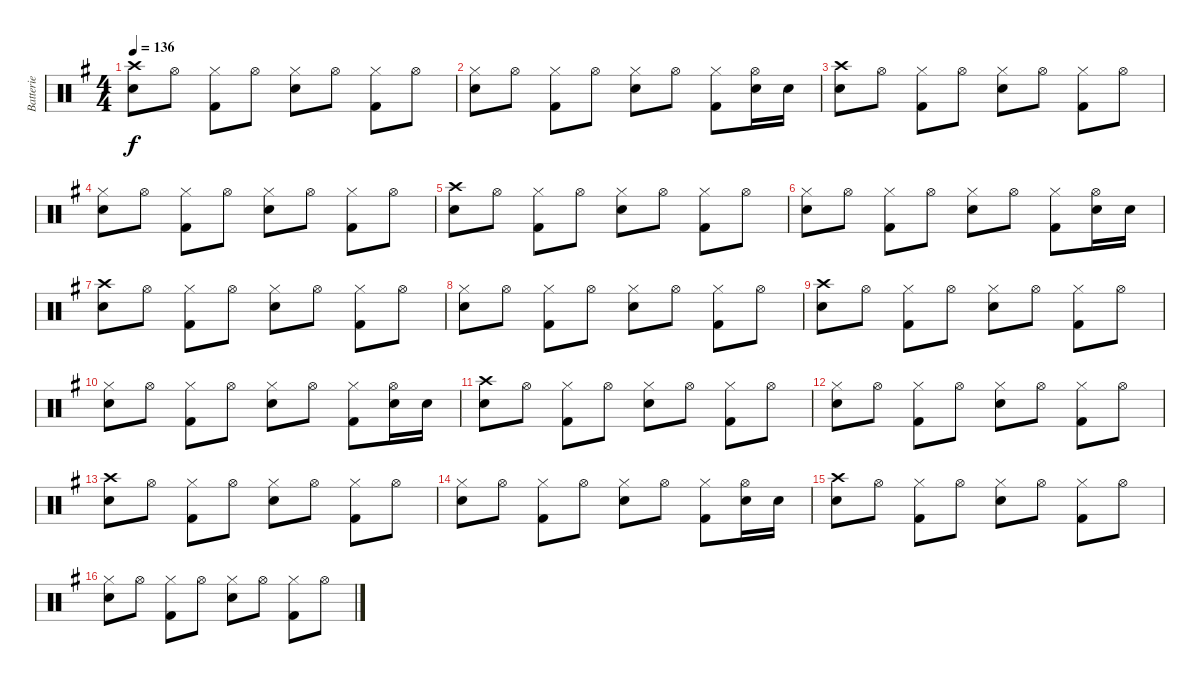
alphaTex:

\track ("Batterie" "Batterie") {instrument percussion}
\staff {score}
\articulation defaults
\ts (4 4)
\tempo 136
\clef neutral
\ks g
("Crash high (hit)" "Snare (hit) 2").8{dy f} "Hi-Hat (open)".8 ("Hi-Hat (closed)" "Kick (hit) 2").8 "Hi-Hat (open)".8 ("Hi-Hat (closed)" "Snare (hit) 2").8 "Hi-Hat (open)".8 ("Hi-Hat (closed)" "Kick (hit) 2").8 "Hi-Hat (open)".8 |
("Hi-Hat (closed)" "Snare (hit) 2").8 "Hi-Hat (open)".8 ("Hi-Hat (closed)" "Kick (hit) 2").8 "Hi-Hat (open)".8 ("Hi-Hat (closed)" "Snare (hit) 2").8 "Hi-Hat (open)".8 ("Hi-Hat (closed)" "Kick (hit) 2").8 ("Hi-Hat (open)" "Snare (hit) 2").16 "Snare (hit) 2".16 |
("Crash high (hit)" "Snare (hit) 2").8 "Hi-Hat (open)".8 ("Hi-Hat (closed)" "Kick (hit) 2").8 "Hi-Hat (open)".8 ("Hi-Hat (closed)" "Snare (hit) 2").8 "Hi-Hat (open)".8 ("Hi-Hat (closed)" "Kick (hit) 2").8 "Hi-Hat (open)".8 |
("Hi-Hat (closed)" "Snare (hit) 2").8 "Hi-Hat (open)".8 ("Hi-Hat (closed)" "Kick (hit) 2").8 "Hi-Hat (open)".8 ("Hi-Hat (closed)" "Snare (hit) 2").8 "Hi-Hat (open)".8 ("Hi-Hat (closed)" "Kick (hit) 2").8 "Hi-Hat (open)".8 |
("Crash high (hit)" "Snare (hit) 2").8 "Hi-Hat (open)".8 ("Hi-Hat (closed)" "Kick (hit) 2").8 "Hi-Hat (open)".8 ("Hi-Hat (closed)" "Snare (hit) 2").8 "Hi-Hat (open)".8 ("Hi-Hat (closed)" "Kick (hit) 2").8 "Hi-Hat (open)".8 |
("Hi-Hat (closed)" "Snare (hit) 2").8 "Hi-Hat (open)".8 ("Hi-Hat (closed)" "Kick (hit) 2").8 "Hi-Hat (open)".8 ("Hi-Hat (closed)" "Snare (hit) 2").8 "Hi-Hat (open)".8 ("Hi-Hat (closed)" "Kick (hit) 2").8 ("Hi-Hat (open)" "Snare (hit) 2").16 "Snare (hit) 2".16 |
("Crash high (hit)" "Snare (hit) 2").8 "Hi-Hat (open)".8 ("Hi-Hat (closed)" "Kick (hit) 2").8 "Hi-Hat (open)".8 ("Hi-Hat (closed)" "Snare (hit) 2").8 "Hi-Hat (open)".8 ("Hi-Hat (closed)" "Kick (hit) 2").8 "Hi-Hat (open)".8 |
("Hi-Hat (closed)" "Snare (hit) 2").8 "Hi-Hat (open)".8 ("Hi-Hat (closed)" "Kick (hit) 2").8 "Hi-Hat (open)".8 ("Hi-Hat (closed)" "Snare (hit) 2").8 "Hi-Hat (open)".8 ("Hi-Hat (closed)" "Kick (hit) 2").8 "Hi-Hat (open)".8 |
("Crash high (hit)" "Snare (hit) 2").8 "Hi-Hat (open)".8 ("Hi-Hat (closed)" "Kick (hit) 2").8 "Hi-Hat (open)".8 ("Hi-Hat (closed)" "Snare (hit) 2").8 "Hi-Hat (open)".8 ("Hi-Hat (closed)" "Kick (hit) 2").8 "Hi-Hat (open)".8 |
("Hi-Hat (closed)" "Snare (hit) 2").8 "Hi-Hat (open)".8 ("Hi-Hat (closed)" "Kick (hit) 2").8 "Hi-Hat (open)".8 ("Hi-Hat (closed)" "Snare (hit) 2").8 "Hi-Hat (open)".8 ("Hi-Hat (closed)" "Kick (hit) 2").8 ("Hi-Hat (open)" "Snare (hit) 2").16 "Snare (hit) 2".16 |
("Crash high (hit)" "Snare (hit) 2").8 "Hi-Hat (open)".8 ("Hi-Hat (closed)" "Kick (hit) 2").8 "Hi-Hat (open)".8 ("Hi-Hat (closed)" "Snare (hit) 2").8 "Hi-Hat (open)".8 ("Hi-Hat (closed)" "Kick (hit) 2").8 "Hi-Hat (open)".8 |
("Hi-Hat (closed)" "Snare (hit) 2").8 "Hi-Hat (open)".8 ("Hi-Hat (closed)" "Kick (hit) 2").8 "Hi-Hat (open)".8 ("Hi-Hat (closed)" "Snare (hit) 2").8 "Hi-Hat (open)".8 ("Hi-Hat (closed)" "Kick (hit) 2").8 "Hi-Hat (open)".8 |
("Crash high (hit)" "Snare (hit) 2").8 "Hi-Hat (open)".8 ("Hi-Hat (closed)" "Kick (hit) 2").8 "Hi-Hat (open)".8 ("Hi-Hat (closed)" "Snare (hit) 2").8 "Hi-Hat (open)".8 ("Hi-Hat (closed)" "Kick (hit) 2").8 "Hi-Hat (open)".8 |
("Hi-Hat (closed)" "Snare (hit) 2").8 "Hi-Hat (open)".8 ("Hi-Hat (closed)" "Kick (hit) 2").8 "Hi-Hat (open)".8 ("Hi-Hat (closed)" "Snare (hit) 2").8 "Hi-Hat (open)".8 ("Hi-Hat (closed)" "Kick (hit) 2").8 ("Hi-Hat (open)" "Snare (hit) 2").16 "Snare (hit) 2".16 |
("Crash high (hit)" "Snare (hit) 2").8 "Hi-Hat (open)".8 ("Hi-Hat (closed)" "Kick (hit) 2").8 "Hi-Hat (open)".8 ("Hi-Hat (closed)" "Snare (hit) 2").8 "Hi-Hat (open)".8 ("Hi-Hat (closed)" "Kick (hit) 2").8 "Hi-Hat (open)".8 |
("Hi-Hat (closed)" "Snare (hit) 2").8 "Hi-Hat (open)".8 ("Hi-Hat (closed)" "Kick (hit) 2").8 "Hi-Hat (open)".8 ("Hi-Hat (closed)" "Snare (hit) 2").8 "Hi-Hat (open)".8 ("Hi-Hat (closed)" "Kick (hit) 2").8 "Hi-Hat (open)".8
